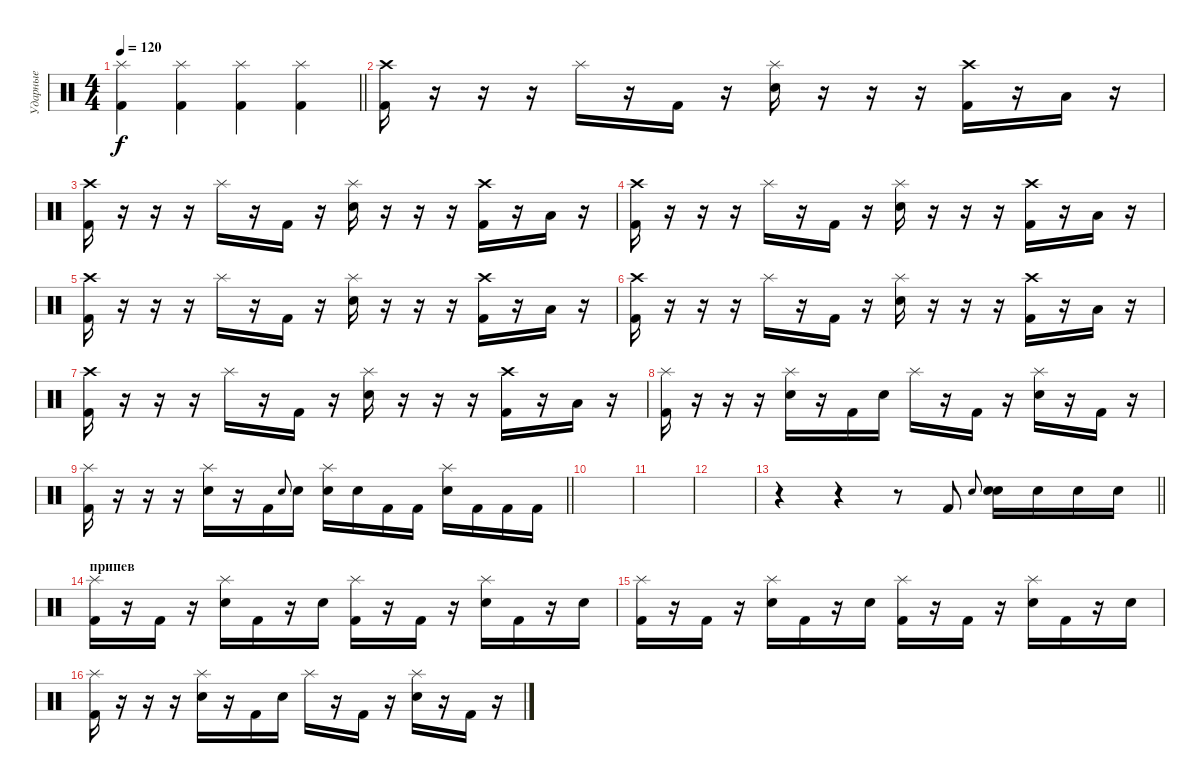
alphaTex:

\track ("Ударные" "Ударные") {instrument percussion}
\staff {score}
\articulation defaults
\ts (4 4)
\section ("" "")
\tempo 120
\clef neutral
\barLineRight lightlight
\ks c
("Splash (hit)" "Kick (hit) 2").4{dy f} ("Splash (hit)" "Kick (hit) 2").4 ("Splash (hit)" "Kick (hit) 2").4 ("Splash (hit)" "Kick (hit) 2").4 |
\section ("" "")
("Crash high (hit)" "Kick (hit) 2").16 r.16 r.16 r.16 "Splash (hit)".16 r.16 "Kick (hit) 2".16 r.16 ("Splash (hit)" "Electric Snare (hit)").16 r.16 r.16 r.16 ("Crash high (hit)" "Kick (hit) 2").16 r.16 "Low Tom (hit)".16 r.16 |
("Crash high (hit)" "Kick (hit) 2").16 r.16 r.16 r.16 "Splash (hit)".16 r.16 "Kick (hit) 2".16 r.16 ("Splash (hit)" "Electric Snare (hit)").16 r.16 r.16 r.16 ("Crash high (hit)" "Kick (hit) 2").16 r.16 "Low Tom (hit)".16 r.16 |
("Crash high (hit)" "Kick (hit) 2").16 r.16 r.16 r.16 "Splash (hit)".16 r.16 "Kick (hit) 2".16 r.16 ("Splash (hit)" "Electric Snare (hit)").16 r.16 r.16 r.16 ("Crash high (hit)" "Kick (hit) 2").16 r.16 "Low Tom (hit)".16 r.16 |
("Crash high (hit)" "Kick (hit) 2").16 r.16 r.16 r.16 "Splash (hit)".16 r.16 "Kick (hit) 2".16 r.16 ("Splash (hit)" "Electric Snare (hit)").16 r.16 r.16 r.16 ("Crash high (hit)" "Kick (hit) 2").16 r.16 "Low Tom (hit)".16 r.16 |
("Crash high (hit)" "Kick (hit) 2").16 r.16 r.16 r.16 "Splash (hit)".16 r.16 "Kick (hit) 2".16 r.16 ("Splash (hit)" "Electric Snare (hit)").16 r.16 r.16 r.16 ("Crash high (hit)" "Kick (hit) 2").16 r.16 "Low Tom (hit)".16 r.16 |
("Crash high (hit)" "Kick (hit) 2").16 r.16 r.16 r.16 "Splash (hit)".16 r.16 "Kick (hit) 2".16 r.16 ("Splash (hit)" "Electric Snare (hit)").16 r.16 r.16 r.16 ("Crash high (hit)" "Kick (hit) 2").16 r.16 "Low Tom (hit)".16 r.16 |
("Splash (hit)" "Kick (hit) 2").16 r.16 r.16 r.16 ("Splash (hit)" "Electric Snare (hit)").16 r.16 "Kick (hit) 2".16 "Electric Snare (hit)".16 "Splash (hit)".16 r.16 "Kick (hit) 2".16 r.16 ("Splash (hit)" "Electric Snare (hit)").16 r.16 "Kick (hit) 2".16 r.16 |
\barLineRight lightlight
("Splash (hit)" "Kick (hit) 2").16 r.16 r.16 r.16 ("Splash (hit)" "Electric Snare (hit)").16 r.16 "Kick (hit) 2".16 "Electric Snare (hit)".8{gr onbeat} "Electric Snare (hit)".16 ("Splash (hit)" "Electric Snare (hit)").16 "Electric Snare (hit)".16 "Kick (hit) 2".16 "Kick (hit) 2".16 ("Splash (hit)" "Electric Snare (hit)").16 "Kick (hit) 2".16 "Kick (hit) 2".16 "Kick (hit) 2".16 |
\section ("" "")
|
|
|
\barLineRight lightlight
r.4 r.4 r.8 "Kick (hit) 2".8 "Electric Snare (hit)".8{gr onbeat} ("Electric Snare (hit)" "Electric Snare (hit)").16 "Electric Snare (hit)".16 "Electric Snare (hit)".16 "Electric Snare (hit)".16 |
\section ("" "припев")
("Splash (hit)" "Kick (hit) 2").16 r.16 "Kick (hit) 2".16 r.16 ("Splash (hit)" "Electric Snare (hit)").16 "Kick (hit) 2".16 r.16 "Electric Snare (hit)".16 ("Splash (hit)" "Kick (hit) 2").16 r.16 "Kick (hit) 2".16 r.16 ("Splash (hit)" "Electric Snare (hit)").16 "Kick (hit) 2".16 r.16 "Electric Snare (hit)".16 |
("Splash (hit)" "Kick (hit) 2").16 r.16 "Kick (hit) 2".16 r.16 ("Splash (hit)" "Electric Snare (hit)").16 "Kick (hit) 2".16 r.16 "Electric Snare (hit)".16 ("Splash (hit)" "Kick (hit) 2").16 r.16 "Kick (hit) 2".16 r.16 ("Splash (hit)" "Electric Snare (hit)").16 "Kick (hit) 2".16 r.16 "Electric Snare (hit)".16 |
("Splash (hit)" "Kick (hit) 2").16 r.16 r.16 r.16 ("Splash (hit)" "Electric Snare (hit)").16 r.16 "Kick (hit) 2".16 "Electric Snare (hit)".16 "Splash (hit)".16 r.16 "Kick (hit) 2".16 r.16 ("Splash (hit)" "Electric Snare (hit)").16 r.16 "Kick (hit) 2".16 r.16
